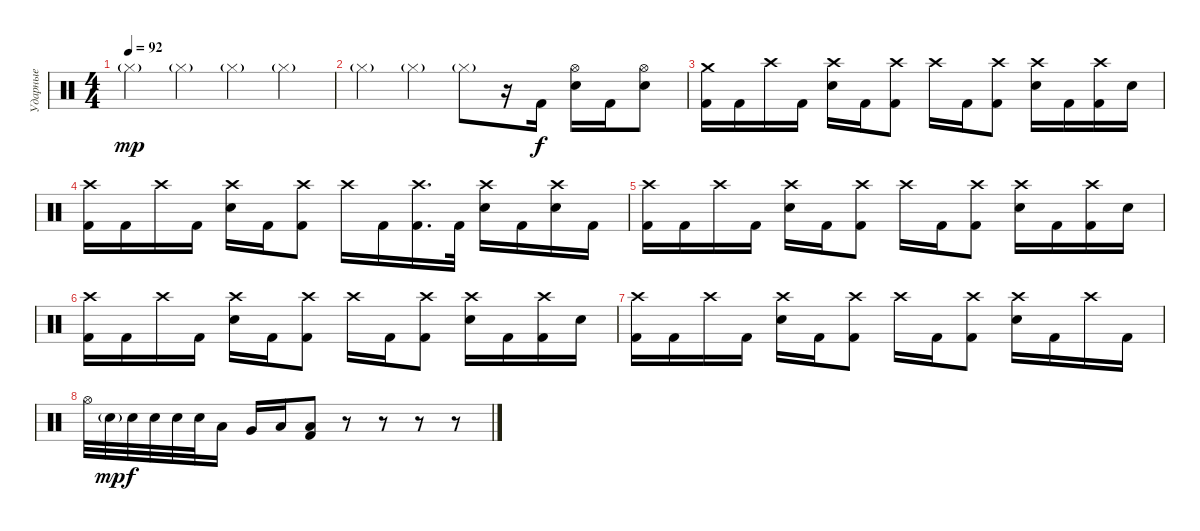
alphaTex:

\track ("Ударные" "Ударные") {instrument percussion}
\staff {score}
\articulation defaults
\ts (4 4)
\tempo 92
\clef neutral
\ks c "Hi-Hat (closed)"{g}.4{dy mp} "Hi-Hat (closed)"{g}.4 "Hi-Hat (closed)"{g}.4 "Hi-Hat (closed)"{g}.4
|
"Hi-Hat (closed)"{g}.4 "Hi-Hat (closed)"{g}.4 "Hi-Hat (closed)"{g}.8 r.16 "Kick (hit) 2".16{dy f} ("Hi-Hat (open)" "Electric Snare (hit)").16 "Kick (hit) 2".16 ("Hi-Hat (open)" "Electric Snare (hit)").8 |
("Crash medium (hit)" "Kick (hit) 2").16 "Kick (hit) 2".16 "Crash high (hit)".16 "Kick (hit) 2".16 ("Crash high (hit)" "Electric Snare (hit)").16 "Kick (hit) 2".16 ("Crash high (hit)" "Kick (hit) 2").8 "Crash high (hit)".16 "Kick (hit) 2".16 ("Crash high (hit)" "Kick (hit) 2").8 ("Crash high (hit)" "Electric Snare (hit)").16 "Kick (hit) 2".16 ("Crash high (hit)" "Kick (hit) 2").16 "Electric Snare (hit)".16 |
("Crash high (hit)" "Kick (hit) 2").16 "Kick (hit) 2".16 "Crash high (hit)".16 "Kick (hit) 2".16 ("Crash high (hit)" "Electric Snare (hit)").16 "Kick (hit) 2".16 ("Crash high (hit)" "Kick (hit) 2").8 "Crash high (hit)".16 "Kick (hit) 2".16 ("Crash high (hit)" "Kick (hit) 2").16{d} "Kick (hit) 2".32 ("Crash high (hit)" "Electric Snare (hit)").16 "Kick (hit) 2".16 ("Crash high (hit)" "Electric Snare (hit)").16 "Kick (hit) 2".16 |
("Crash high (hit)" "Kick (hit) 2").16 "Kick (hit) 2".16 "Crash high (hit)".16 "Kick (hit) 2".16 ("Crash high (hit)" "Electric Snare (hit)").16 "Kick (hit) 2".16 ("Crash high (hit)" "Kick (hit) 2").8 "Crash high (hit)".16 "Kick (hit) 2".16 ("Crash high (hit)" "Kick (hit) 2").8 ("Crash high (hit)" "Electric Snare (hit)").16 "Kick (hit) 2".16 ("Crash high (hit)" "Kick (hit) 2").16 "Electric Snare (hit)".16 |
("Crash high (hit)" "Kick (hit) 2").16 "Kick (hit) 2".16 "Crash high (hit)".16 "Kick (hit) 2".16 ("Crash high (hit)" "Electric Snare (hit)").16 "Kick (hit) 2".16 ("Crash high (hit)" "Kick (hit) 2").8 "Crash high (hit)".16 "Kick (hit) 2".16 ("Crash high (hit)" "Kick (hit) 2").8 ("Crash high (hit)" "Electric Snare (hit)").16 "Kick (hit) 2".16 ("Crash high (hit)" "Kick (hit) 2").16 "Electric Snare (hit)".16 |
("Crash high (hit)" "Kick (hit) 2").16 "Kick (hit) 2".16 "Crash high (hit)".16 "Kick (hit) 2".16 ("Crash high (hit)" "Electric Snare (hit)").16 "Kick (hit) 2".16 ("Crash high (hit)" "Kick (hit) 2").8 "Crash high (hit)".16 "Kick (hit) 2".16 ("Crash high (hit)" "Kick (hit) 2").8 ("Crash high (hit)" "Electric Snare (hit)").16 "Kick (hit) 2".16 "Crash high (hit)".16 "Kick (hit) 2".16 |
"Hi-Hat (open)".32 "Electric Snare (hit)"{g}.32{dy mp} "Electric Snare (hit)".32{dy f} "Electric Snare (hit)".32 "Electric Snare (hit)".32 "Electric Snare (hit)".32 "Low Tom (hit)".16 "Very Low Tom (hit)".16 "Low Floor Tom (hit)".16 ("Low Floor Tom (hit)" "Kick (hit) 2").8 r.8 r.8 r.8 r.8
